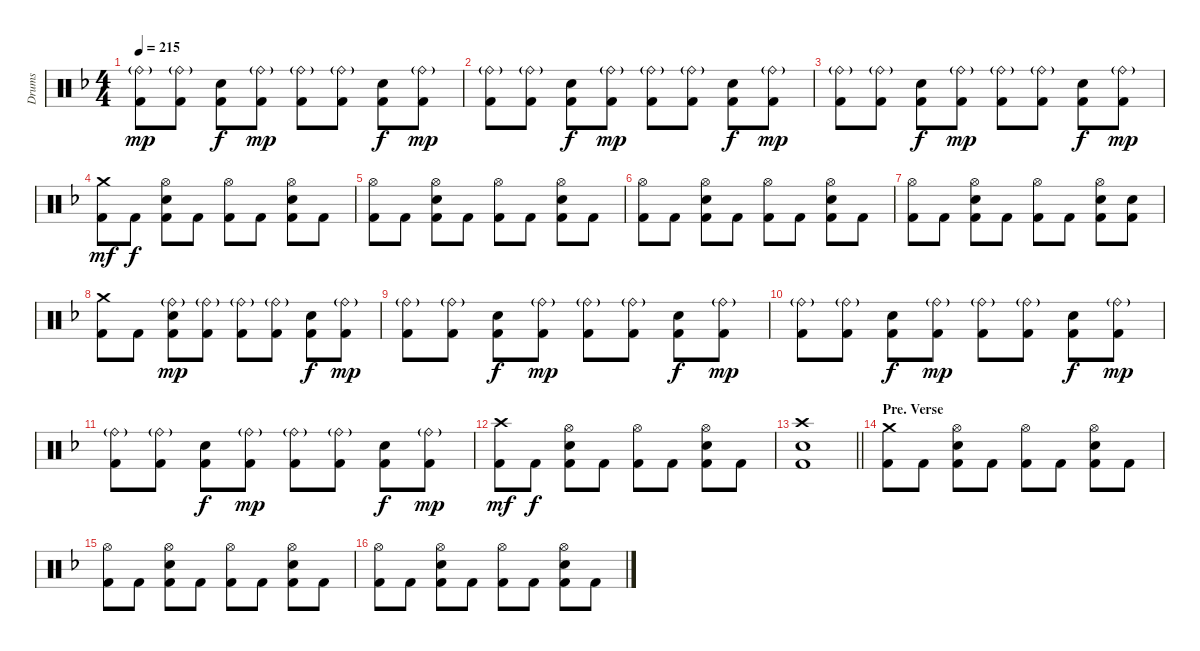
\track ("Drums" "Drums") {instrument percussion}
\staff {score}
\articulation defaults
\ts (4 4)
\tempo 215
\clef neutral
\ks f
("Ride (bell)"{g} "Kick (hit) 2").8{dy mp} ("Ride (bell)"{g} "Kick (hit) 2").8 ("Snare (hit) 2" "Kick (hit) 2").8{dy f} ("Ride (bell)"{g} "Kick (hit) 2").8{dy mp} ("Ride (bell)"{g} "Kick (hit) 2").8 ("Ride (bell)"{g} "Kick (hit) 2").8 ("Snare (hit) 2" "Kick (hit) 2").8{dy f} ("Ride (bell)"{g} "Kick (hit) 2").8{dy mp} |
("Ride (bell)"{g} "Kick (hit) 2").8 ("Ride (bell)"{g} "Kick (hit) 2").8 ("Snare (hit) 2" "Kick (hit) 2").8{dy f} ("Ride (bell)"{g} "Kick (hit) 2").8{dy mp} ("Ride (bell)"{g} "Kick (hit) 2").8 ("Ride (bell)"{g} "Kick (hit) 2").8 ("Snare (hit) 2" "Kick (hit) 2").8{dy f} ("Ride (bell)"{g} "Kick (hit) 2").8{dy mp} |
("Ride (bell)"{g} "Kick (hit) 2").8 ("Ride (bell)"{g} "Kick (hit) 2").8 ("Snare (hit) 2" "Kick (hit) 2").8{dy f} ("Ride (bell)"{g} "Kick (hit) 2").8{dy mp} ("Ride (bell)"{g} "Kick (hit) 2").8 ("Ride (bell)"{g} "Kick (hit) 2").8 ("Snare (hit) 2" "Kick (hit) 2").8{dy f} ("Ride (bell)"{g} "Kick (hit) 2").8{dy mp} |
("Crash medium (hit)" "Kick (hit) 2").8{dy mf} "Kick (hit) 2".8{dy f} ("Hi-Hat (open)" "Snare (hit) 2" "Kick (hit) 2").8 "Kick (hit) 2".8 ("Hi-Hat (open)" "Kick (hit) 2").8 "Kick (hit) 2".8 ("Hi-Hat (open)" "Snare (hit) 2" "Kick (hit) 2").8 "Kick (hit) 2".8 |
("Hi-Hat (open)" "Kick (hit) 2").8 "Kick (hit) 2".8 ("Hi-Hat (open)" "Snare (hit) 2" "Kick (hit) 2").8 "Kick (hit) 2".8 ("Hi-Hat (open)" "Kick (hit) 2").8 "Kick (hit) 2".8 ("Hi-Hat (open)" "Snare (hit) 2" "Kick (hit) 2").8 "Kick (hit) 2".8 |
("Hi-Hat (open)" "Kick (hit) 2").8 "Kick (hit) 2".8 ("Hi-Hat (open)" "Snare (hit) 2" "Kick (hit) 2").8 "Kick (hit) 2".8 ("Hi-Hat (open)" "Kick (hit) 2").8 "Kick (hit) 2".8 ("Hi-Hat (open)" "Snare (hit) 2" "Kick (hit) 2").8 "Kick (hit) 2".8 |
("Hi-Hat (open)" "Kick (hit) 2").8 "Kick (hit) 2".8 ("Hi-Hat (open)" "Snare (hit) 2" "Kick (hit) 2").8 "Kick (hit) 2".8 ("Hi-Hat (open)" "Kick (hit) 2").8 "Kick (hit) 2".8 ("Hi-Hat (open)" "Snare (hit) 2" "Kick (hit) 2").8 ("Snare (hit) 2" "Kick (hit) 2").8 |
("Crash medium (hit)" "Kick (hit) 2").8 "Kick (hit) 2".8 ("Ride (bell)"{g} "Snare (hit) 2" "Kick (hit) 2").8{dy mp} ("Ride (bell)"{g} "Kick (hit) 2").8 ("Ride (bell)"{g} "Kick (hit) 2").8 ("Ride (bell)"{g} "Kick (hit) 2").8 ("Snare (hit) 2" "Kick (hit) 2").8{dy f} ("Ride (bell)"{g} "Kick (hit) 2").8{dy mp} |
("Ride (bell)"{g} "Kick (hit) 2").8 ("Ride (bell)"{g} "Kick (hit) 2").8 ("Snare (hit) 2" "Kick (hit) 2").8{dy f} ("Ride (bell)"{g} "Kick (hit) 2").8{dy mp} ("Ride (bell)"{g} "Kick (hit) 2").8 ("Ride (bell)"{g} "Kick (hit) 2").8 ("Snare (hit) 2" "Kick (hit) 2").8{dy f} ("Ride (bell)"{g} "Kick (hit) 2").8{dy mp} |
("Ride (bell)"{g} "Kick (hit) 2").8 ("Ride (bell)"{g} "Kick (hit) 2").8 ("Snare (hit) 2" "Kick (hit) 2").8{dy f} ("Ride (bell)"{g} "Kick (hit) 2").8{dy mp} ("Ride (bell)"{g} "Kick (hit) 2").8 ("Ride (bell)"{g} "Kick (hit) 2").8 ("Snare (hit) 2" "Kick (hit) 2").8{dy f} ("Ride (bell)"{g} "Kick (hit) 2").8{dy mp} |
("Ride (bell)"{g} "Kick (hit) 2").8 ("Ride (bell)"{g} "Kick (hit) 2").8 ("Snare (hit) 2" "Kick (hit) 2").8{dy f} ("Ride (bell)"{g} "Kick (hit) 2").8{dy mp} ("Ride (bell)"{g} "Kick (hit) 2").8 ("Ride (bell)"{g} "Kick (hit) 2").8 ("Snare (hit) 2" "Kick (hit) 2").8{dy f} ("Ride (bell)"{g} "Kick (hit) 2").8{dy mp} |
("Crash high (hit)" "Kick (hit) 2").8{dy mf} "Kick (hit) 2".8{dy f} ("Hi-Hat (open)" "Snare (hit) 2" "Kick (hit) 2").8 "Kick (hit) 2".8 ("Hi-Hat (open)" "Kick (hit) 2").8 "Kick (hit) 2".8 ("Hi-Hat (open)" "Snare (hit) 2" "Kick (hit) 2").8 "Kick (hit) 2".8 |
\barLineRight lightlight
("Crash high (hit)" "Snare (hit) 2" "Kick (hit) 2").1 |
\section ("" "Pre. Verse")
("Crash medium (hit)" "Kick (hit) 2").8 "Kick (hit) 2".8 ("Hi-Hat (open)" "Snare (hit) 2" "Kick (hit) 2").8 "Kick (hit) 2".8 ("Hi-Hat (open)" "Kick (hit) 2").8 "Kick (hit) 2".8 ("Hi-Hat (open)" "Snare (hit) 2" "Kick (hit) 2").8 "Kick (hit) 2".8 |
("Hi-Hat (open)" "Kick (hit) 2").8 "Kick (hit) 2".8 ("Hi-Hat (open)" "Snare (hit) 2" "Kick (hit) 2").8 "Kick (hit) 2".8 ("Hi-Hat (open)" "Kick (hit) 2").8 "Kick (hit) 2".8 ("Hi-Hat (open)" "Snare (hit) 2" "Kick (hit) 2").8 "Kick (hit) 2".8 |
("Hi-Hat (open)" "Kick (hit) 2").8 "Kick (hit) 2".8 ("Hi-Hat (open)" "Snare (hit) 2" "Kick (hit) 2").8 "Kick (hit) 2".8 ("Hi-Hat (open)" "Kick (hit) 2").8 "Kick (hit) 2".8 ("Hi-Hat (open)" "Snare (hit) 2" "Kick (hit) 2").8 "Kick (hit) 2".8
